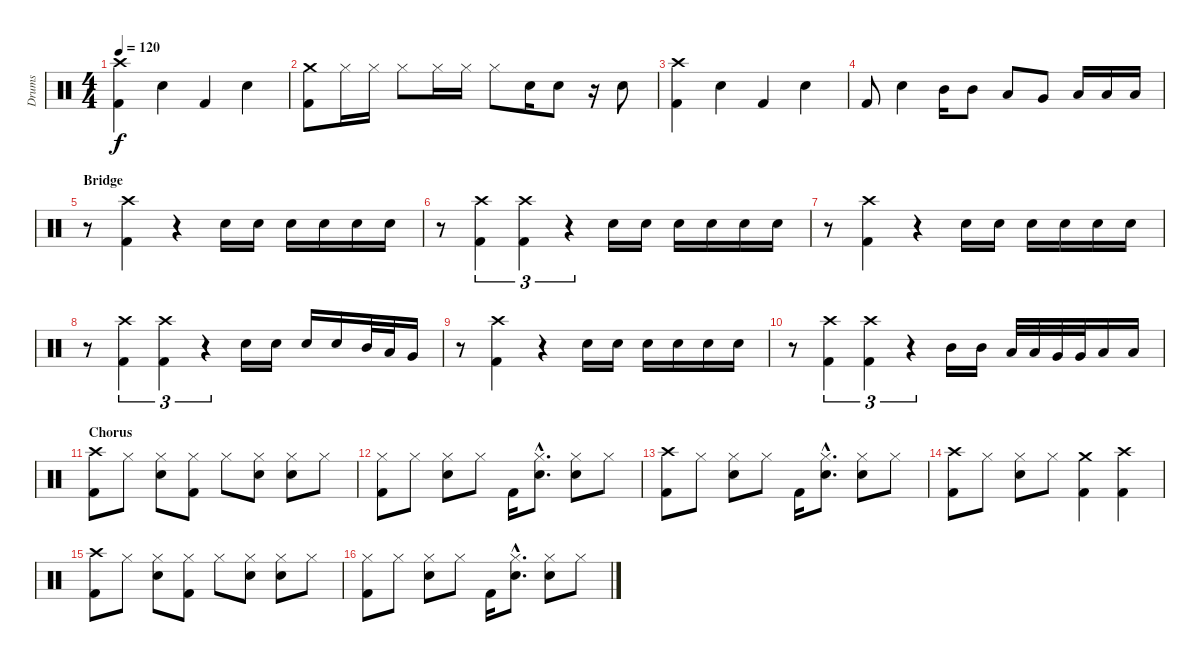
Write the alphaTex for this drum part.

\track ("Drums" "Drums") {instrument percussion}
\staff {score}
\articulation defaults
\ts (4 4)
\tempo 120
\clef neutral
\ks c
("Crash high (hit)" "Kick (hit) 2").4{dy f} "Electric Snare (hit)".4 "Kick (hit) 2".4 "Electric Snare (hit)".4 |
("Crash medium (hit)" "Kick (hit) 2").8 "Hi-Hat (closed)".16 "Hi-Hat (closed)".16 "Hi-Hat (closed)".8 "Hi-Hat (closed)".16 "Hi-Hat (closed)".16 "Hi-Hat (closed)".8 "Electric Snare (hit)".16 "Electric Snare (hit)".8 r.16 "Electric Snare (hit)".8 |
("Crash high (hit)" "Kick (hit) 2").4 "Electric Snare (hit)".4 "Kick (hit) 2".4 "Electric Snare (hit)".4 |
"Kick (hit) 2".8 "Electric Snare (hit)".4 "Mid Tom (hit)".16 "Mid Tom (hit)".8 "Low Tom (hit)".8 "Very Low Tom (hit)".8 "Low Floor Tom (hit)".16 "Low Floor Tom (hit)".16 "Low Floor Tom (hit)".16 |
\section ("" "Bridge")
r.8 ("Crash high (hit)" "Kick (hit) 2").4 r.4 "Electric Snare (hit)".16 "Electric Snare (hit)".16 "Electric Snare (hit)".16 "Electric Snare (hit)".16 "Electric Snare (hit)".16 "Electric Snare (hit)".16 |
r.8 ("Crash high (hit)" "Kick (hit) 2").4{tu (3 2)} ("Crash high (hit)" "Kick (hit) 2").4{tu (3 2)} r.4{tu (3 2)} "Electric Snare (hit)".16 "Electric Snare (hit)".16 "Electric Snare (hit)".16 "Electric Snare (hit)".16 "Electric Snare (hit)".16 "Electric Snare (hit)".16 |
r.8 ("Crash high (hit)" "Kick (hit) 2").4 r.4 "Electric Snare (hit)".16 "Electric Snare (hit)".16 "Electric Snare (hit)".16 "Electric Snare (hit)".16 "Electric Snare (hit)".16 "Electric Snare (hit)".16 |
r.8 ("Crash high (hit)" "Kick (hit) 2").4{tu (3 2)} ("Crash high (hit)" "Kick (hit) 2").4{tu (3 2)} r.4{tu (3 2)} "Electric Snare (hit)".16 "Electric Snare (hit)".16 "Electric Snare (hit)".16 "Electric Snare (hit)".16 "Mid Tom (hit)".32 "Low Tom (hit)".32 "Very Low Tom (hit)".16 |
r.8 ("Crash high (hit)" "Kick (hit) 2").4 r.4 "Electric Snare (hit)".16 "Electric Snare (hit)".16 "Electric Snare (hit)".16 "Electric Snare (hit)".16 "Electric Snare (hit)".16 "Electric Snare (hit)".16 |
r.8 ("Crash high (hit)" "Kick (hit) 2").4{tu (3 2)} ("Crash high (hit)" "Kick (hit) 2").4{tu (3 2)} r.4{tu (3 2)} "Mid Tom (hit)".16 "Mid Tom (hit)".16 "Low Tom (hit)".32 "Low Tom (hit)".32 "Very Low Tom (hit)".32 "Very Low Tom (hit)".32 "Low Floor Tom (hit)".16 "Low Floor Tom (hit)".16 |
\section ("" "Chorus")
("Crash high (hit)" "Kick (hit) 2").8 "Hi-Hat (closed)".8 ("Electric Snare (hit)" "Hi-Hat (closed)").8 ("Hi-Hat (closed)" "Kick (hit) 2").8 "Hi-Hat (closed)".8 ("Electric Snare (hit)" "Hi-Hat (closed)").8 ("Electric Snare (hit)" "Hi-Hat (closed)").8 "Hi-Hat (closed)".8 |
("Hi-Hat (closed)" "Kick (hit) 2").8 "Hi-Hat (closed)".8 ("Electric Snare (hit)" "Hi-Hat (closed)").8 "Hi-Hat (closed)".8 "Kick (hit) 2".16 ("Electric Snare (hit)"{hac} "Hi-Hat (closed)"{hac}).8{d} ("Electric Snare (hit)" "Hi-Hat (closed)").8 "Hi-Hat (closed)".8 |
("Crash high (hit)" "Kick (hit) 2").8 "Hi-Hat (closed)".8 ("Electric Snare (hit)" "Hi-Hat (closed)").8 "Hi-Hat (closed)".8 "Kick (hit) 2".16 ("Electric Snare (hit)"{hac} "Hi-Hat (closed)"{hac}).8{d} ("Electric Snare (hit)" "Hi-Hat (closed)").8 "Hi-Hat (closed)".8 |
("Crash high (hit)" "Kick (hit) 2").8 "Hi-Hat (closed)".8 ("Electric Snare (hit)" "Hi-Hat (closed)").8 "Hi-Hat (closed)".8 ("Crash medium (hit)" "Kick (hit) 2").4 ("Crash high (hit)" "Kick (hit) 2").4 |
("Crash high (hit)" "Kick (hit) 2").8 "Hi-Hat (closed)".8 ("Electric Snare (hit)" "Hi-Hat (closed)").8 ("Hi-Hat (closed)" "Kick (hit) 2").8 "Hi-Hat (closed)".8 ("Electric Snare (hit)" "Hi-Hat (closed)").8 ("Electric Snare (hit)" "Hi-Hat (closed)").8 "Hi-Hat (closed)".8 |
("Hi-Hat (closed)" "Kick (hit) 2").8 "Hi-Hat (closed)".8 ("Electric Snare (hit)" "Hi-Hat (closed)").8 "Hi-Hat (closed)".8 "Kick (hit) 2".16 ("Electric Snare (hit)"{hac} "Hi-Hat (closed)"{hac}).8{d} ("Electric Snare (hit)" "Hi-Hat (closed)").8 "Hi-Hat (closed)".8
